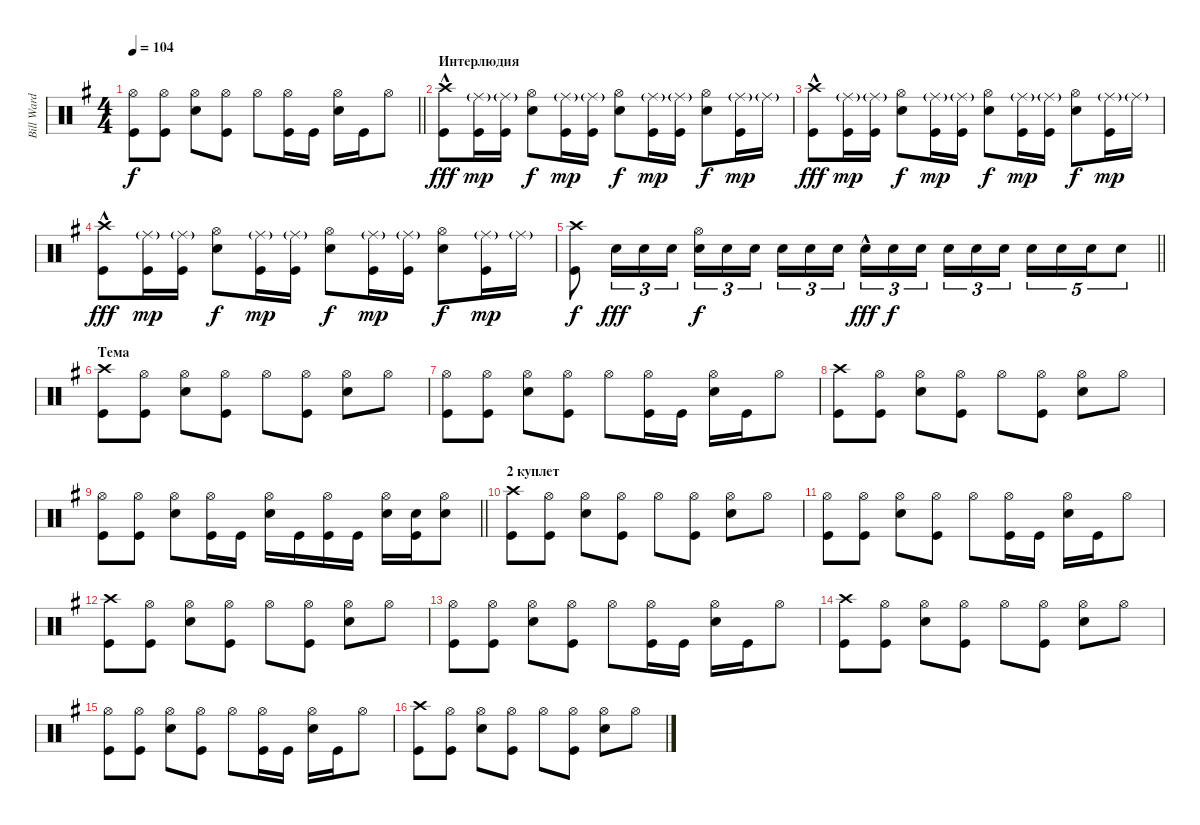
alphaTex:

\track ("Bill Ward" "Bill Ward") {instrument percussion}
\staff {score}
\articulation defaults
\ts (4 4)
\tempo 104
\clef neutral
\barLineRight lightlight
\ks g
("Kick (hit)" "Hi-Hat (open)").8{dy f} ("Kick (hit)" "Hi-Hat (open)").8 ("Snare (hit) 2" "Hi-Hat (open)").8 ("Kick (hit)" "Hi-Hat (open)").8 "Hi-Hat (open)".8 ("Kick (hit)" "Hi-Hat (open)").16 "Kick (hit)".16 ("Snare (hit) 2" "Hi-Hat (open)").16 "Kick (hit)".16 "Hi-Hat (open)".8 |
\section ("" "Интерлюдия")
("Kick (hit)" "Crash high (hit)"{hac}).8{dy fff} ("Kick (hit)" "Ride (middle)"{g}).16{dy mp} ("Kick (hit)" "Ride (middle)"{g}).16 ("Snare (hit) 2" "Hi-Hat (open)").8{dy f} ("Kick (hit)" "Ride (middle)"{g}).16{dy mp} ("Kick (hit)" "Ride (middle)"{g}).16 ("Snare (hit) 2" "Hi-Hat (open)").8{dy f} ("Kick (hit)" "Ride (middle)"{g}).16{dy mp} ("Kick (hit)" "Ride (middle)"{g}).16 ("Snare (hit) 2" "Hi-Hat (open)").8{dy f} ("Kick (hit)" "Ride (middle)"{g}).16{dy mp} "Ride (middle)"{g}.16 |
("Kick (hit)" "Crash high (hit)"{hac}).8{dy fff} ("Kick (hit)" "Ride (middle)"{g}).16{dy mp} ("Kick (hit)" "Ride (middle)"{g}).16 ("Snare (hit) 2" "Hi-Hat (open)").8{dy f} ("Kick (hit)" "Ride (middle)"{g}).16{dy mp} ("Kick (hit)" "Ride (middle)"{g}).16 ("Snare (hit) 2" "Hi-Hat (open)").8{dy f} ("Kick (hit)" "Ride (middle)"{g}).16{dy mp} ("Kick (hit)" "Ride (middle)"{g}).16 ("Snare (hit) 2" "Hi-Hat (open)").8{dy f} ("Kick (hit)" "Ride (middle)"{g}).16{dy mp} "Ride (middle)"{g}.16 |
("Kick (hit)" "Crash high (hit)"{hac}).8{dy fff} ("Kick (hit)" "Ride (middle)"{g}).16{dy mp} ("Kick (hit)" "Ride (middle)"{g}).16 ("Snare (hit) 2" "Hi-Hat (open)").8{dy f} ("Kick (hit)" "Ride (middle)"{g}).16{dy mp} ("Kick (hit)" "Ride (middle)"{g}).16 ("Snare (hit) 2" "Hi-Hat (open)").8{dy f} ("Kick (hit)" "Ride (middle)"{g}).16{dy mp} ("Kick (hit)" "Ride (middle)"{g}).16 ("Snare (hit) 2" "Hi-Hat (open)").8{dy f} ("Kick (hit)" "Ride (middle)"{g}).16{dy mp} "Ride (middle)"{g}.16 |
\barLineRight lightlight
("Crash high (hit)" "Kick (hit)").8{dy f} "Snare (hit) 2".16{tu (3 2) dy fff} "Snare (hit) 2".16{tu (3 2)} "Snare (hit) 2".16{tu (3 2)} ("Snare (hit) 2" "Hi-Hat (open)").16{tu (3 2) dy f} "Snare (hit) 2".16{tu (3 2)} "Snare (hit) 2".16{tu (3 2) beam splitsecondary} "Snare (hit) 2".16{tu (3 2)} "Snare (hit) 2".16{tu (3 2)} "Snare (hit) 2".16{tu (3 2)} "Snare (hit) 2"{hac}.16{tu (3 2) dy fff} "Snare (hit) 2".16{tu (3 2) dy f} "Snare (hit) 2".16{tu (3 2) beam splitsecondary} "Snare (hit) 2".16{tu (3 2)} "Snare (hit) 2".16{tu (3 2)} "Snare (hit) 2".16{tu (3 2)} "Snare (hit) 2".16{tu (5 4)} "Snare (hit) 2".16{tu (5 4)} "Snare (hit) 2".16{tu (5 4)} "Snare (hit) 2".8{tu (5 4)} |
\section ("" "Тема")
("Crash high (hit)" "Kick (hit)").8 ("Kick (hit)" "Hi-Hat (open)").8 ("Snare (hit) 2" "Hi-Hat (open)").8 ("Kick (hit)" "Hi-Hat (open)").8 "Hi-Hat (open)".8 ("Kick (hit)" "Hi-Hat (open)").8 ("Hi-Hat (open)" "Snare (hit) 2").8 "Hi-Hat (open)".8 |
("Kick (hit)" "Hi-Hat (open)").8 ("Kick (hit)" "Hi-Hat (open)").8 ("Snare (hit) 2" "Hi-Hat (open)").8 ("Kick (hit)" "Hi-Hat (open)").8 "Hi-Hat (open)".8 ("Kick (hit)" "Hi-Hat (open)").16 "Kick (hit)".16 ("Hi-Hat (open)" "Snare (hit) 2").16 "Kick (hit)".16 "Hi-Hat (open)".8 |
("Crash high (hit)" "Kick (hit)").8 ("Kick (hit)" "Hi-Hat (open)").8 ("Snare (hit) 2" "Hi-Hat (open)").8 ("Kick (hit)" "Hi-Hat (open)").8 "Hi-Hat (open)".8 ("Kick (hit)" "Hi-Hat (open)").8 ("Hi-Hat (open)" "Snare (hit) 2").8 "Hi-Hat (open)".8 |
\barLineRight lightlight
("Kick (hit)" "Hi-Hat (open)").8 ("Kick (hit)" "Hi-Hat (open)").8 ("Snare (hit) 2" "Hi-Hat (open)").8 ("Kick (hit)" "Hi-Hat (open)").16 "Kick (hit)".16 ("Hi-Hat (open)" "Snare (hit) 2").16 "Kick (hit)".16 ("Kick (hit)" "Hi-Hat (open)").16 "Kick (hit)".16 ("Hi-Hat (open)" "Snare (hit) 2").16 ("Kick (hit)" "Snare (hit) 2").16 ("Hi-Hat (open)" "Snare (hit) 2").8 |
\section ("" "2 куплет")
("Crash high (hit)" "Kick (hit)").8 ("Kick (hit)" "Hi-Hat (open)").8 ("Snare (hit) 2" "Hi-Hat (open)").8 ("Kick (hit)" "Hi-Hat (open)").8 "Hi-Hat (open)".8 ("Kick (hit)" "Hi-Hat (open)").8 ("Hi-Hat (open)" "Snare (hit) 2").8 "Hi-Hat (open)".8 |
("Kick (hit)" "Hi-Hat (open)").8 ("Kick (hit)" "Hi-Hat (open)").8 ("Snare (hit) 2" "Hi-Hat (open)").8 ("Kick (hit)" "Hi-Hat (open)").8 "Hi-Hat (open)".8 ("Kick (hit)" "Hi-Hat (open)").16 "Kick (hit)".16 ("Snare (hit) 2" "Hi-Hat (open)").16 "Kick (hit)".16 "Hi-Hat (open)".8 |
("Crash high (hit)" "Kick (hit)").8 ("Kick (hit)" "Hi-Hat (open)").8 ("Snare (hit) 2" "Hi-Hat (open)").8 ("Kick (hit)" "Hi-Hat (open)").8 "Hi-Hat (open)".8 ("Kick (hit)" "Hi-Hat (open)").8 ("Hi-Hat (open)" "Snare (hit) 2").8 "Hi-Hat (open)".8 |
("Kick (hit)" "Hi-Hat (open)").8 ("Kick (hit)" "Hi-Hat (open)").8 ("Snare (hit) 2" "Hi-Hat (open)").8 ("Kick (hit)" "Hi-Hat (open)").8 "Hi-Hat (open)".8 ("Kick (hit)" "Hi-Hat (open)").16 "Kick (hit)".16 ("Snare (hit) 2" "Hi-Hat (open)").16 "Kick (hit)".16 "Hi-Hat (open)".8 |
("Crash high (hit)" "Kick (hit)").8 ("Kick (hit)" "Hi-Hat (open)").8 ("Snare (hit) 2" "Hi-Hat (open)").8 ("Kick (hit)" "Hi-Hat (open)").8 "Hi-Hat (open)".8 ("Kick (hit)" "Hi-Hat (open)").8 ("Hi-Hat (open)" "Snare (hit) 2").8 "Hi-Hat (open)".8 |
("Kick (hit)" "Hi-Hat (open)").8 ("Kick (hit)" "Hi-Hat (open)").8 ("Snare (hit) 2" "Hi-Hat (open)").8 ("Kick (hit)" "Hi-Hat (open)").8 "Hi-Hat (open)".8 ("Kick (hit)" "Hi-Hat (open)").16 "Kick (hit)".16 ("Snare (hit) 2" "Hi-Hat (open)").16 "Kick (hit)".16 "Hi-Hat (open)".8 |
("Crash high (hit)" "Kick (hit)").8 ("Kick (hit)" "Hi-Hat (open)").8 ("Snare (hit) 2" "Hi-Hat (open)").8 ("Kick (hit)" "Hi-Hat (open)").8 "Hi-Hat (open)".8 ("Kick (hit)" "Hi-Hat (open)").8 ("Hi-Hat (open)" "Snare (hit) 2").8 "Hi-Hat (open)".8
